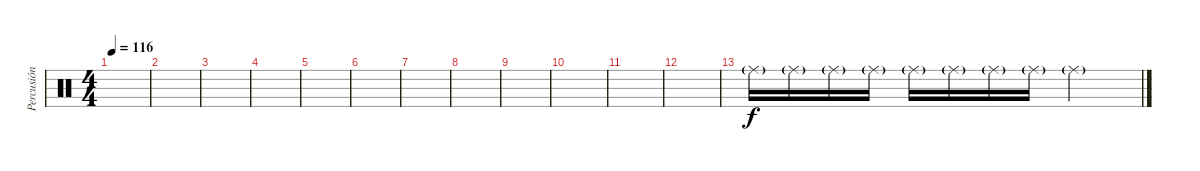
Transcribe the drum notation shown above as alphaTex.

\track ("Percusión" "Percusión") {instrument percussion}
\staff {score}
\articulation defaults
\ts (4 4)
\tempo 116
\clef neutral
\ks c
|
|
|
|
|
|
|
|
|
|
|
|
"Ride (middle)"{g}.16 "Ride (middle)"{g}.16 "Ride (middle)"{g}.16 "Ride (middle)"{g}.16 "Ride (middle)"{g}.16 "Ride (middle)"{g}.16 "Ride (middle)"{g}.16 "Ride (middle)"{g}.16 "Ride (middle)"{g}.2
